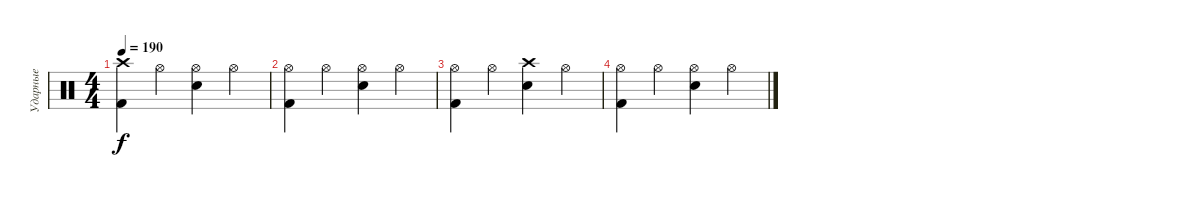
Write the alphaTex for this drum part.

\track ("Ударные" "Ударные") {instrument percussion}
\staff {score}
\articulation defaults
\ts (4 4)
\tempo 190
\clef neutral
\ks c
("Crash high (hit)" "Kick (hit) 2").4{dy f} "Hi-Hat (open)".4 ("Hi-Hat (open)" "Electric Snare (hit)").4 "Hi-Hat (open)".4 |
("Hi-Hat (open)" "Kick (hit) 2").4 "Hi-Hat (open)".4 ("Hi-Hat (open)" "Electric Snare (hit)").4 "Hi-Hat (open)".4 |
("Hi-Hat (open)" "Kick (hit) 2").4 "Hi-Hat (open)".4 ("Crash high (hit)" "Electric Snare (hit)").4 "Hi-Hat (open)".4 |
("Hi-Hat (open)" "Kick (hit) 2").4 "Hi-Hat (open)".4 ("Hi-Hat (open)" "Electric Snare (hit)").4 "Hi-Hat (open)".4
